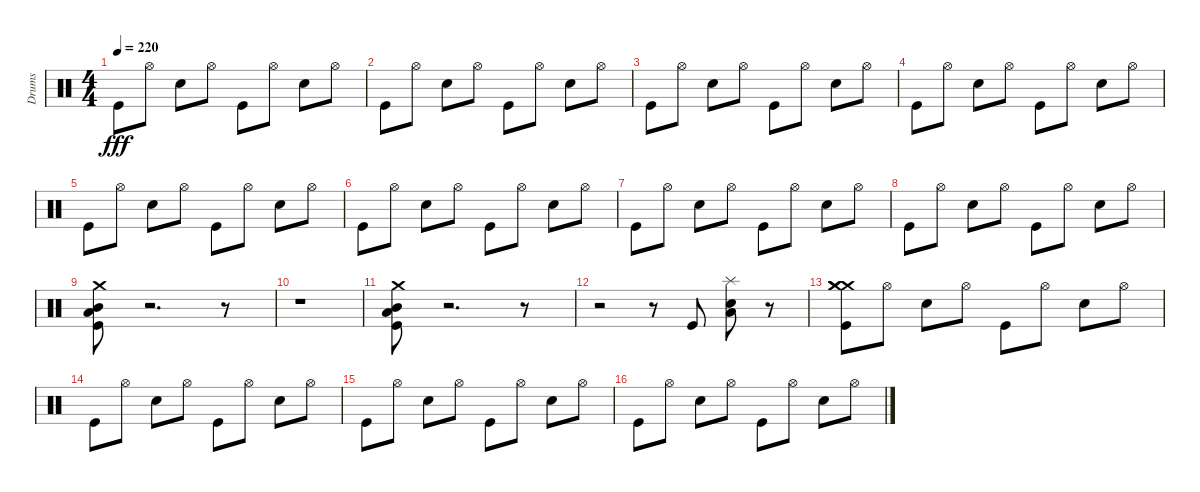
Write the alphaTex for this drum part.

\track ("Drums" "Drums") {instrument percussion}
\staff {score}
\articulation defaults
\ts (4 4)
\tempo 220
\clef neutral
\ks c "Kick (hit)".8{dy fff} "Hi-Hat (open)".8 "Snare (hit) 2".8 "Hi-Hat (open)".8 "Kick (hit)".8 "Hi-Hat (open)".8 "Snare (hit) 2".8 "Hi-Hat (open)".8
|
"Kick (hit)".8 "Hi-Hat (open)".8 "Snare (hit) 2".8 "Hi-Hat (open)".8 "Kick (hit)".8 "Hi-Hat (open)".8 "Snare (hit) 2".8 "Hi-Hat (open)".8 |
"Kick (hit)".8 "Hi-Hat (open)".8 "Snare (hit) 2".8 "Hi-Hat (open)".8 "Kick (hit)".8 "Hi-Hat (open)".8 "Snare (hit) 2".8 "Hi-Hat (open)".8 |
"Kick (hit)".8 "Hi-Hat (open)".8 "Snare (hit) 2".8 "Hi-Hat (open)".8 "Kick (hit)".8 "Hi-Hat (open)".8 "Snare (hit) 2".8 "Hi-Hat (open)".8 |
"Kick (hit)".8 "Hi-Hat (open)".8 "Snare (hit) 2".8 "Hi-Hat (open)".8 "Kick (hit)".8 "Hi-Hat (open)".8 "Snare (hit) 2".8 "Hi-Hat (open)".8 |
"Kick (hit)".8 "Hi-Hat (open)".8 "Snare (hit) 2".8 "Hi-Hat (open)".8 "Kick (hit)".8 "Hi-Hat (open)".8 "Snare (hit) 2".8 "Hi-Hat (open)".8 |
"Kick (hit)".8 "Hi-Hat (open)".8 "Snare (hit) 2".8 "Hi-Hat (open)".8 "Kick (hit)".8 "Hi-Hat (open)".8 "Snare (hit) 2".8 "Hi-Hat (open)".8 |
"Kick (hit)".8 "Hi-Hat (open)".8 "Snare (hit) 2".8 "Hi-Hat (open)".8 "Kick (hit)".8 "Hi-Hat (open)".8 "Snare (hit) 2".8 "Hi-Hat (open)".8 |
("Kick (hit)" "Low Floor Tom (hit)" "Mid Tom (hit)" "Crash medium (hit)").8 r.2{d} r.8 |
r.1 |
("Kick (hit)" "Low Floor Tom (hit)" "Mid Tom (hit)" "Crash medium (hit)").8 r.2{d} r.8 |
r.2 r.8 "Kick (hit)".8 ("Splash (hit)" "Snare (hit) 2" "Low Floor Tom (hit)").8 r.8 |
("Crash medium (hit)" "Crash medium (hit)" "Crash medium (hit)" "Kick (hit)").8 "Hi-Hat (open)".8 "Snare (hit) 2".8 "Hi-Hat (open)".8 "Kick (hit)".8 "Hi-Hat (open)".8 "Snare (hit) 2".8 "Hi-Hat (open)".8 |
"Kick (hit)".8 "Hi-Hat (open)".8 "Snare (hit) 2".8 "Hi-Hat (open)".8 "Kick (hit)".8 "Hi-Hat (open)".8 "Snare (hit) 2".8 "Hi-Hat (open)".8 |
"Kick (hit)".8 "Hi-Hat (open)".8 "Snare (hit) 2".8 "Hi-Hat (open)".8 "Kick (hit)".8 "Hi-Hat (open)".8 "Snare (hit) 2".8 "Hi-Hat (open)".8 |
"Kick (hit)".8 "Hi-Hat (open)".8 "Snare (hit) 2".8 "Hi-Hat (open)".8 "Kick (hit)".8 "Hi-Hat (open)".8 "Snare (hit) 2".8 "Hi-Hat (open)".8
